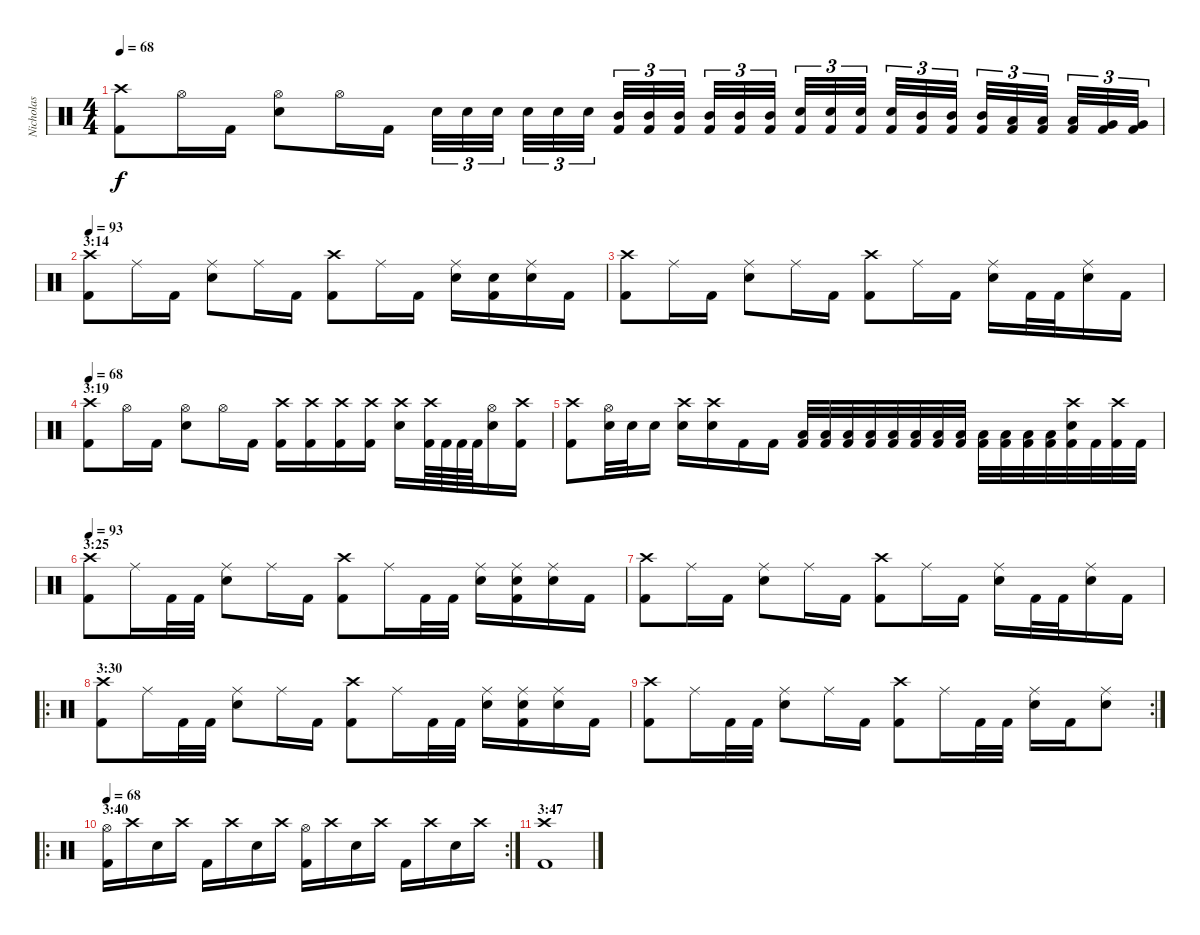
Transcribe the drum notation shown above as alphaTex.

\track ("Nicholas" "Nicholas") {instrument percussion}
\staff {score}
\articulation defaults
\ts (4 4)
\tempo 68
\clef neutral
\ks c
("Kick (hit) 2" "Crash high (hit)").8{dy f} "Hi-Hat (open)".16 "Kick (hit) 2".16 ("Snare (hit) 2" "Hi-Hat (open)").8 "Hi-Hat (open)".16 "Kick (hit) 2".16 "Snare (hit) 2".32{tu (3 2)} "Snare (hit) 2".32{tu (3 2)} "Snare (hit) 2".32{tu (3 2)} "Snare (hit) 2".32{tu (3 2)} "Snare (hit) 2".32{tu (3 2)} "Snare (hit) 2".32{tu (3 2)} ("Kick (hit) 2" "Mid Tom (hit)").32{tu (3 2)} ("Kick (hit) 2" "Mid Tom (hit)").32{tu (3 2)} ("Kick (hit) 2" "Mid Tom (hit)").32{tu (3 2)} ("Kick (hit) 2" "Mid Tom (hit)").32{tu (3 2)} ("Kick (hit) 2" "Mid Tom (hit)").32{tu (3 2)} ("Kick (hit) 2" "Mid Tom (hit)").32{tu (3 2)} ("Kick (hit) 2" "Snare (hit) 2").32{tu (3 2)} ("Kick (hit) 2" "Snare (hit) 2").32{tu (3 2)} ("Kick (hit) 2" "Snare (hit) 2").32{tu (3 2)} ("Kick (hit) 2" "Snare (hit) 2").32{tu (3 2)} ("Kick (hit) 2" "Mid Tom (hit)").32{tu (3 2)} ("Kick (hit) 2" "Mid Tom (hit)").32{tu (3 2)} ("Kick (hit) 2" "Mid Tom (hit)").32{tu (3 2)} ("Kick (hit) 2" "Low Tom (hit)").32{tu (3 2)} ("Kick (hit) 2" "Low Tom (hit)").32{tu (3 2)} ("Kick (hit) 2" "Low Tom (hit)").32{tu (3 2)} ("Kick (hit) 2" "Very Low Tom (hit)").32{tu (3 2)} ("Kick (hit) 2" "Very Low Tom (hit)").32{tu (3 2)} |
\section ("" "3:14")
\tempo 93
("Kick (hit) 2" "Crash high (hit)").8 "Ride (middle)".16 "Kick (hit) 2".16 ("Snare (hit) 2" "Ride (middle)").8 "Ride (middle)".16 "Kick (hit) 2".16 ("Kick (hit) 2" "Crash high (hit)").8 "Ride (middle)".16 "Kick (hit) 2".16 ("Snare (hit) 2" "Ride (middle)").16 ("Kick (hit) 2" "Snare (hit) 2").16 ("Snare (hit) 2" "Ride (middle)").16 "Kick (hit) 2".16 |
("Kick (hit) 2" "Crash high (hit)").8 "Ride (middle)".16 "Kick (hit) 2".16 ("Snare (hit) 2" "Ride (middle)").8 "Ride (middle)".16 "Kick (hit) 2".16 ("Kick (hit) 2" "Crash high (hit)").8 "Ride (middle)".16 "Kick (hit) 2".16 ("Snare (hit) 2" "Ride (middle)").16 "Kick (hit) 2".32 "Kick (hit) 2".32 ("Snare (hit) 2" "Ride (middle)").16 "Kick (hit) 2".16 |
\section ("" "3:19")
\tempo 68
("Kick (hit) 2" "Crash high (hit)").8 "Hi-Hat (open)".16 "Kick (hit) 2".16 ("Snare (hit) 2" "Hi-Hat (open)").8 "Hi-Hat (open)".16 "Kick (hit) 2".16 ("Kick (hit) 2" "Crash high (hit)").16 ("Kick (hit) 2" "Crash high (hit)").16 ("Kick (hit) 2" "Crash high (hit)").16 ("Kick (hit) 2" "Crash high (hit)").16 ("Snare (hit) 2" "Crash high (hit)").16 ("Kick (hit) 2" "Crash high (hit)").64 "Kick (hit) 2".64 "Kick (hit) 2".64 "Kick (hit) 2".64 ("Snare (hit) 2" "Hi-Hat (open)").16 ("Kick (hit) 2" "Crash high (hit)").16 |
("Kick (hit) 2" "Crash high (hit)").8 ("Snare (hit) 2" "Hi-Hat (open)").32 "Snare (hit) 2".32 "Snare (hit) 2".16 ("Snare (hit) 2" "Crash high (hit)").16 ("Snare (hit) 2" "Crash high (hit)").16 "Kick (hit) 2".16 "Kick (hit) 2".16 ("Kick (hit) 2" "Low Tom (hit)").32 ("Kick (hit) 2" "Low Tom (hit)").32 ("Kick (hit) 2" "Low Tom (hit)").32 ("Kick (hit) 2" "Low Tom (hit)").32 ("Kick (hit) 2" "Low Tom (hit)").32 ("Kick (hit) 2" "Low Tom (hit)").32 ("Kick (hit) 2" "Low Tom (hit)").32 ("Kick (hit) 2" "Low Tom (hit)").32 ("Kick (hit) 2" "Low Tom (hit)").32 ("Kick (hit) 2" "Low Tom (hit)").32 ("Kick (hit) 2" "Low Tom (hit)").32 ("Kick (hit) 2" "Low Tom (hit)").32 ("Kick (hit) 2" "Snare (hit) 2" "Crash high (hit)").32 "Kick (hit) 2".32 ("Kick (hit) 2" "Crash high (hit)").32 "Kick (hit) 2".32 |
\section ("" "3:25")
\tempo 93
("Kick (hit) 2" "Crash high (hit)").8 "Ride (middle)".16 "Kick (hit) 2".32 "Kick (hit) 2".32 ("Snare (hit) 2" "Ride (middle)").8 "Ride (middle)".16 "Kick (hit) 2".16 ("Kick (hit) 2" "Crash high (hit)").8 "Ride (middle)".16 "Kick (hit) 2".32 "Kick (hit) 2".32 ("Snare (hit) 2" "Ride (middle)").16 ("Kick (hit) 2" "Snare (hit) 2" "Ride (middle)").16 ("Snare (hit) 2" "Ride (middle)").16 "Kick (hit) 2".16 |
("Kick (hit) 2" "Crash high (hit)").8 "Ride (middle)".16 "Kick (hit) 2".16 ("Snare (hit) 2" "Ride (middle)").8 "Ride (middle)".16 "Kick (hit) 2".16 ("Kick (hit) 2" "Crash high (hit)").8 "Ride (middle)".16 "Kick (hit) 2".16 ("Snare (hit) 2" "Ride (middle)").16 "Kick (hit) 2".32 "Kick (hit) 2".32 ("Snare (hit) 2" "Ride (middle)").16 "Kick (hit) 2".16 |
\ro
\section ("" "3:30")
("Kick (hit) 2" "Crash high (hit)").8 "Ride (middle)".16 "Kick (hit) 2".32 "Kick (hit) 2".32 ("Snare (hit) 2" "Ride (middle)").8 "Ride (middle)".16 "Kick (hit) 2".16 ("Kick (hit) 2" "Crash high (hit)").8 "Ride (middle)".16 "Kick (hit) 2".32 "Kick (hit) 2".32 ("Snare (hit) 2" "Ride (middle)").16 ("Kick (hit) 2" "Snare (hit) 2" "Ride (middle)").16 ("Snare (hit) 2" "Ride (middle)").16 "Kick (hit) 2".16 |
\rc 2
("Kick (hit) 2" "Crash high (hit)").8 "Ride (middle)".16 "Kick (hit) 2".32 "Kick (hit) 2".32 ("Snare (hit) 2" "Ride (middle)").8 "Ride (middle)".16 "Kick (hit) 2".16 ("Kick (hit) 2" "Crash high (hit)").8 "Ride (middle)".16 "Kick (hit) 2".32 "Kick (hit) 2".32 ("Snare (hit) 2" "Ride (middle)").16 "Kick (hit) 2".16 ("Snare (hit) 2" "Ride (middle)").8 |
\ro
\rc 2
\section ("" "3:40")
\tempo 68
("Kick (hit) 2" "Hi-Hat (open)").16 "Crash high (hit)".16 "Snare (hit) 2".16 "Crash high (hit)".16 "Kick (hit) 2".16 "Crash high (hit)".16 "Snare (hit) 2".16 "Crash high (hit)".16 ("Kick (hit) 2" "Hi-Hat (open)").16 "Crash high (hit)".16 "Snare (hit) 2".16 "Crash high (hit)".16 "Kick (hit) 2".16 "Crash high (hit)".16 "Snare (hit) 2".16 "Crash high (hit)".16 |
\section ("" "3:47")
("Kick (hit) 2" "Crash high (hit)").1
